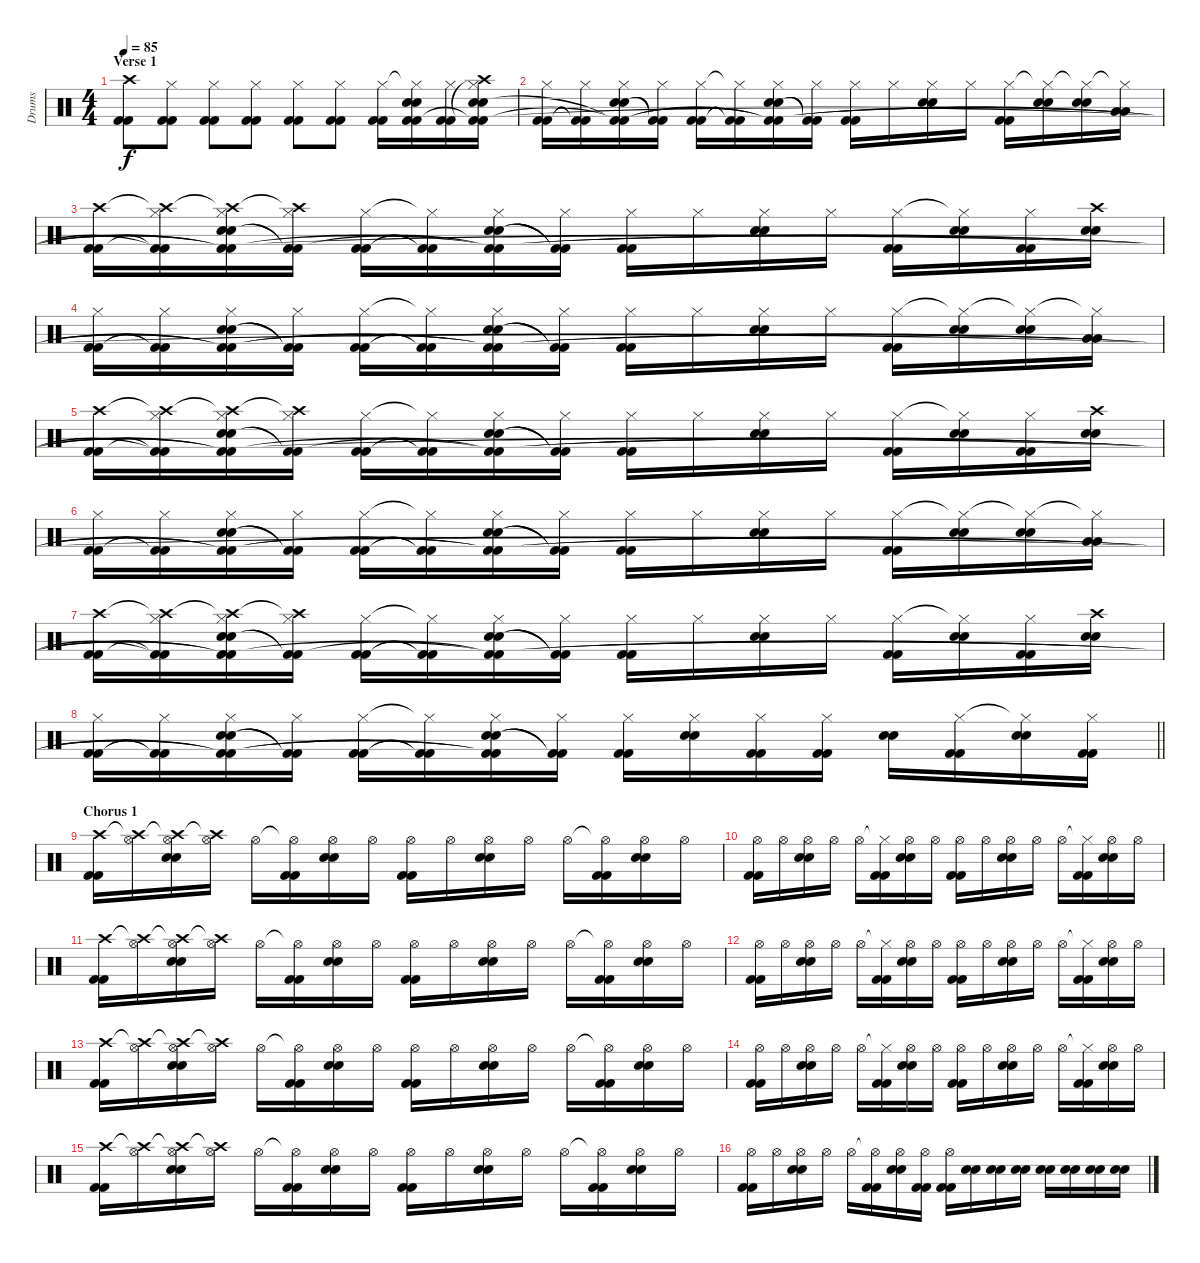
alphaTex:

\track ("Drums" "Drums") {instrument percussion}
\staff {score}
\articulation defaults
\ts (4 4)
\section ("" "Verse 1")
\tempo 85
\clef neutral
\ks c
("Crash high (hit)" "Kick (hit) 2" "Kick (hit) 2").8{dy f} ("Hi-Hat (closed)" "Kick (hit) 2" "Kick (hit) 2").8 ("Hi-Hat (closed)" "Kick (hit) 2" "Kick (hit) 2").8 ("Hi-Hat (closed)" "Kick (hit) 2" "Kick (hit) 2").8 ("Hi-Hat (closed)" "Kick (hit) 2" "Kick (hit) 2").8 ("Hi-Hat (closed)" "Kick (hit) 2" "Kick (hit) 2").8 ("Hi-Hat (closed)" "Kick (hit) 2" "Kick (hit) 2").16 ("Hi-Hat (closed)"{t} "Snare (hit) 2" "Snare (hit) 2" "Kick (hit) 2"{t} "Kick (hit) 2").16 ("Hi-Hat (closed)" "Kick (hit) 2" "Kick (hit) 2").16 ("Crash high (hit)" "Hi-Hat (closed)"{t} "Snare (hit) 2" "Snare (hit) 2" "Kick (hit) 2"{t} "Kick (hit) 2").16 |
("Hi-Hat (closed)" "Kick (hit) 2" "Kick (hit) 2").16 ("Hi-Hat (closed)" "Kick (hit) 2"{t} "Kick (hit) 2"{t}).16 ("Hi-Hat (closed)" "Snare (hit) 2" "Snare (hit) 2" "Kick (hit) 2"{t} "Kick (hit) 2"{t}).16 ("Hi-Hat (closed)" "Kick (hit) 2"{t} "Kick (hit) 2"{t}).16 ("Hi-Hat (closed)" "Kick (hit) 2" "Kick (hit) 2").16 ("Hi-Hat (closed)"{t} "Kick (hit) 2"{t} "Kick (hit) 2"{t}).16 ("Hi-Hat (closed)" "Snare (hit) 2" "Snare (hit) 2" "Kick (hit) 2"{t} "Kick (hit) 2"{t}).16 ("Hi-Hat (closed)" "Kick (hit) 2"{t} "Kick (hit) 2"{t}).16 ("Hi-Hat (closed)" "Kick (hit) 2" "Kick (hit) 2").16 "Hi-Hat (closed)".16 ("Hi-Hat (closed)" "Snare (hit) 2" "Snare (hit) 2").16 "Hi-Hat (closed)".16 ("Hi-Hat (closed)" "Kick (hit) 2" "Kick (hit) 2").16 ("Hi-Hat (closed)"{t} "Snare (hit) 2" "Snare (hit) 2").16 ("Hi-Hat (closed)"{t} "Snare (hit) 2" "Snare (hit) 2").16 ("Hi-Hat (closed)"{t} "Low Tom (hit)" "Low Tom (hit)").16 |
("Crash high (hit)" "Kick (hit) 2" "Kick (hit) 2").16 ("Crash high (hit)"{t} "Hi-Hat (closed)" "Kick (hit) 2"{t} "Kick (hit) 2"{t}).16 ("Crash high (hit)"{t} "Hi-Hat (closed)" "Snare (hit) 2" "Snare (hit) 2" "Kick (hit) 2"{t} "Kick (hit) 2"{t}).16 ("Crash high (hit)"{t} "Hi-Hat (closed)" "Kick (hit) 2"{t} "Kick (hit) 2"{t}).16 ("Hi-Hat (closed)" "Kick (hit) 2" "Kick (hit) 2").16 ("Hi-Hat (closed)"{t} "Kick (hit) 2"{t} "Kick (hit) 2"{t}).16 ("Hi-Hat (closed)" "Snare (hit) 2" "Snare (hit) 2" "Kick (hit) 2"{t} "Kick (hit) 2"{t}).16 ("Hi-Hat (closed)" "Kick (hit) 2"{t} "Kick (hit) 2"{t}).16 ("Hi-Hat (closed)" "Kick (hit) 2" "Kick (hit) 2").16 "Hi-Hat (closed)".16 ("Hi-Hat (closed)" "Snare (hit) 2" "Snare (hit) 2").16 "Hi-Hat (closed)".16 ("Hi-Hat (closed)" "Kick (hit) 2" "Kick (hit) 2").16 ("Hi-Hat (closed)"{t} "Snare (hit) 2" "Snare (hit) 2").16 ("Hi-Hat (closed)" "Kick (hit) 2" "Kick (hit) 2").16 ("Crash high (hit)" "Snare (hit) 2" "Snare (hit) 2").16 |
("Hi-Hat (closed)" "Kick (hit) 2" "Kick (hit) 2").16 ("Hi-Hat (closed)" "Kick (hit) 2"{t} "Kick (hit) 2"{t}).16 ("Hi-Hat (closed)" "Snare (hit) 2" "Snare (hit) 2" "Kick (hit) 2"{t} "Kick (hit) 2"{t}).16 ("Hi-Hat (closed)" "Kick (hit) 2"{t} "Kick (hit) 2"{t}).16 ("Hi-Hat (closed)" "Kick (hit) 2" "Kick (hit) 2").16 ("Hi-Hat (closed)"{t} "Kick (hit) 2"{t} "Kick (hit) 2"{t}).16 ("Hi-Hat (closed)" "Snare (hit) 2" "Snare (hit) 2" "Kick (hit) 2"{t} "Kick (hit) 2"{t}).16 ("Hi-Hat (closed)" "Kick (hit) 2"{t} "Kick (hit) 2"{t}).16 ("Hi-Hat (closed)" "Kick (hit) 2" "Kick (hit) 2").16 "Hi-Hat (closed)".16 ("Hi-Hat (closed)" "Snare (hit) 2" "Snare (hit) 2").16 "Hi-Hat (closed)".16 ("Hi-Hat (closed)" "Kick (hit) 2" "Kick (hit) 2").16 ("Hi-Hat (closed)"{t} "Snare (hit) 2" "Snare (hit) 2").16 ("Hi-Hat (closed)"{t} "Snare (hit) 2" "Snare (hit) 2").16 ("Hi-Hat (closed)"{t} "Low Tom (hit)" "Low Tom (hit)").16 |
("Crash high (hit)" "Kick (hit) 2" "Kick (hit) 2").16 ("Crash high (hit)"{t} "Hi-Hat (closed)" "Kick (hit) 2"{t} "Kick (hit) 2"{t}).16 ("Crash high (hit)"{t} "Hi-Hat (closed)" "Snare (hit) 2" "Snare (hit) 2" "Kick (hit) 2"{t} "Kick (hit) 2"{t}).16 ("Crash high (hit)"{t} "Hi-Hat (closed)" "Kick (hit) 2"{t} "Kick (hit) 2"{t}).16 ("Hi-Hat (closed)" "Kick (hit) 2" "Kick (hit) 2").16 ("Hi-Hat (closed)"{t} "Kick (hit) 2"{t} "Kick (hit) 2"{t}).16 ("Hi-Hat (closed)" "Snare (hit) 2" "Snare (hit) 2" "Kick (hit) 2"{t} "Kick (hit) 2"{t}).16 ("Hi-Hat (closed)" "Kick (hit) 2"{t} "Kick (hit) 2"{t}).16 ("Hi-Hat (closed)" "Kick (hit) 2" "Kick (hit) 2").16 "Hi-Hat (closed)".16 ("Hi-Hat (closed)" "Snare (hit) 2" "Snare (hit) 2").16 "Hi-Hat (closed)".16 ("Hi-Hat (closed)" "Kick (hit) 2" "Kick (hit) 2").16 ("Hi-Hat (closed)"{t} "Snare (hit) 2" "Snare (hit) 2").16 ("Hi-Hat (closed)" "Kick (hit) 2" "Kick (hit) 2").16 ("Crash high (hit)" "Snare (hit) 2" "Snare (hit) 2").16 |
("Hi-Hat (closed)" "Kick (hit) 2" "Kick (hit) 2").16 ("Hi-Hat (closed)" "Kick (hit) 2"{t} "Kick (hit) 2"{t}).16 ("Hi-Hat (closed)" "Snare (hit) 2" "Snare (hit) 2" "Kick (hit) 2"{t} "Kick (hit) 2"{t}).16 ("Hi-Hat (closed)" "Kick (hit) 2"{t} "Kick (hit) 2"{t}).16 ("Hi-Hat (closed)" "Kick (hit) 2" "Kick (hit) 2").16 ("Hi-Hat (closed)"{t} "Kick (hit) 2"{t} "Kick (hit) 2"{t}).16 ("Hi-Hat (closed)" "Snare (hit) 2" "Snare (hit) 2" "Kick (hit) 2"{t} "Kick (hit) 2"{t}).16 ("Hi-Hat (closed)" "Kick (hit) 2"{t} "Kick (hit) 2"{t}).16 ("Hi-Hat (closed)" "Kick (hit) 2" "Kick (hit) 2").16 "Hi-Hat (closed)".16 ("Hi-Hat (closed)" "Snare (hit) 2" "Snare (hit) 2").16 "Hi-Hat (closed)".16 ("Hi-Hat (closed)" "Kick (hit) 2" "Kick (hit) 2").16 ("Hi-Hat (closed)"{t} "Snare (hit) 2" "Snare (hit) 2").16 ("Hi-Hat (closed)"{t} "Snare (hit) 2" "Snare (hit) 2").16 ("Hi-Hat (closed)"{t} "Low Tom (hit)" "Low Tom (hit)").16 |
("Crash high (hit)" "Kick (hit) 2" "Kick (hit) 2").16 ("Crash high (hit)"{t} "Hi-Hat (closed)" "Kick (hit) 2"{t} "Kick (hit) 2"{t}).16 ("Crash high (hit)"{t} "Hi-Hat (closed)" "Snare (hit) 2" "Snare (hit) 2" "Kick (hit) 2"{t} "Kick (hit) 2"{t}).16 ("Crash high (hit)"{t} "Hi-Hat (closed)" "Kick (hit) 2"{t} "Kick (hit) 2"{t}).16 ("Hi-Hat (closed)" "Kick (hit) 2" "Kick (hit) 2").16 ("Hi-Hat (closed)"{t} "Kick (hit) 2"{t} "Kick (hit) 2"{t}).16 ("Hi-Hat (closed)" "Snare (hit) 2" "Snare (hit) 2" "Kick (hit) 2"{t} "Kick (hit) 2"{t}).16 ("Hi-Hat (closed)" "Kick (hit) 2"{t} "Kick (hit) 2"{t}).16 ("Hi-Hat (closed)" "Kick (hit) 2" "Kick (hit) 2").16 "Hi-Hat (closed)".16 ("Hi-Hat (closed)" "Snare (hit) 2" "Snare (hit) 2").16 "Hi-Hat (closed)".16 ("Hi-Hat (closed)" "Kick (hit) 2" "Kick (hit) 2").16 ("Hi-Hat (closed)"{t} "Snare (hit) 2" "Snare (hit) 2").16 ("Hi-Hat (closed)" "Kick (hit) 2" "Kick (hit) 2").16 ("Crash high (hit)" "Snare (hit) 2" "Snare (hit) 2").16 |
\barLineRight lightlight
("Hi-Hat (closed)" "Kick (hit) 2" "Kick (hit) 2").16 ("Hi-Hat (closed)" "Kick (hit) 2"{t} "Kick (hit) 2"{t}).16 ("Hi-Hat (closed)" "Snare (hit) 2" "Snare (hit) 2" "Kick (hit) 2"{t} "Kick (hit) 2"{t}).16 ("Hi-Hat (closed)" "Kick (hit) 2"{t} "Kick (hit) 2"{t}).16 ("Hi-Hat (closed)" "Kick (hit) 2" "Kick (hit) 2").16 ("Hi-Hat (closed)"{t} "Kick (hit) 2"{t} "Kick (hit) 2"{t}).16 ("Hi-Hat (closed)" "Snare (hit) 2" "Snare (hit) 2" "Kick (hit) 2"{t} "Kick (hit) 2"{t}).16 ("Hi-Hat (closed)" "Kick (hit) 2"{t} "Kick (hit) 2"{t}).16 ("Hi-Hat (closed)" "Kick (hit) 2" "Kick (hit) 2").16 ("Hi-Hat (closed)" "Snare (hit) 2" "Snare (hit) 2").16 ("Hi-Hat (closed)" "Kick (hit) 2" "Kick (hit) 2").16 ("Hi-Hat (closed)" "Kick (hit) 2" "Kick (hit) 2").16 ("Snare (hit) 2" "Snare (hit) 2").16 ("Hi-Hat (closed)" "Kick (hit) 2" "Kick (hit) 2").16 ("Hi-Hat (closed)"{t} "Snare (hit) 2" "Snare (hit) 2").16 ("Hi-Hat (closed)" "Kick (hit) 2" "Kick (hit) 2").16 |
\section ("" "Chorus 1")
("Crash high (hit)" "Kick (hit) 2" "Kick (hit) 2").16 ("Crash high (hit)"{t} "Hi-Hat (open)").16 ("Crash high (hit)"{t} "Hi-Hat (open)" "Snare (hit) 2" "Snare (hit) 2").16 ("Crash high (hit)"{t} "Hi-Hat (open)").16 "Hi-Hat (open)".16 ("Hi-Hat (open)"{t} "Kick (hit) 2" "Kick (hit) 2").16 ("Hi-Hat (open)" "Snare (hit) 2" "Snare (hit) 2").16 "Hi-Hat (open)".16 ("Hi-Hat (open)" "Kick (hit) 2" "Kick (hit) 2").16 "Hi-Hat (open)".16 ("Hi-Hat (open)" "Snare (hit) 2" "Snare (hit) 2").16 "Hi-Hat (open)".16 "Hi-Hat (open)".16 ("Hi-Hat (open)"{t} "Kick (hit) 2" "Kick (hit) 2").16 ("Hi-Hat (open)" "Snare (hit) 2" "Snare (hit) 2").16 "Hi-Hat (open)".16 |
("Hi-Hat (open)" "Kick (hit) 2" "Kick (hit) 2").16 "Hi-Hat (open)".16 ("Hi-Hat (open)" "Snare (hit) 2" "Snare (hit) 2").16 "Hi-Hat (open)".16 "Hi-Hat (open)".16 ("Hi-Hat (closed)"{t} "Kick (hit) 2" "Kick (hit) 2").16 ("Hi-Hat (open)" "Snare (hit) 2" "Snare (hit) 2").16 "Hi-Hat (open)".16 ("Hi-Hat (open)" "Kick (hit) 2" "Kick (hit) 2").16 "Hi-Hat (open)".16 ("Hi-Hat (open)" "Snare (hit) 2" "Snare (hit) 2").16 "Hi-Hat (open)".16 "Hi-Hat (open)".16 ("Hi-Hat (closed)"{t} "Kick (hit) 2" "Kick (hit) 2").16 ("Hi-Hat (open)" "Snare (hit) 2" "Snare (hit) 2").16 "Hi-Hat (open)".16 |
("Crash high (hit)" "Kick (hit) 2" "Kick (hit) 2").16 ("Crash high (hit)"{t} "Hi-Hat (open)").16 ("Crash high (hit)"{t} "Hi-Hat (open)" "Snare (hit) 2" "Snare (hit) 2").16 ("Crash high (hit)"{t} "Hi-Hat (open)").16 "Hi-Hat (open)".16 ("Hi-Hat (open)"{t} "Kick (hit) 2" "Kick (hit) 2").16 ("Hi-Hat (open)" "Snare (hit) 2" "Snare (hit) 2").16 "Hi-Hat (open)".16 ("Hi-Hat (open)" "Kick (hit) 2" "Kick (hit) 2").16 "Hi-Hat (open)".16 ("Hi-Hat (open)" "Snare (hit) 2" "Snare (hit) 2").16 "Hi-Hat (open)".16 "Hi-Hat (open)".16 ("Hi-Hat (open)"{t} "Kick (hit) 2" "Kick (hit) 2").16 ("Hi-Hat (open)" "Snare (hit) 2" "Snare (hit) 2").16 "Hi-Hat (open)".16 |
("Hi-Hat (open)" "Kick (hit) 2" "Kick (hit) 2").16 "Hi-Hat (open)".16 ("Hi-Hat (open)" "Snare (hit) 2" "Snare (hit) 2").16 "Hi-Hat (open)".16 "Hi-Hat (open)".16 ("Hi-Hat (closed)"{t} "Kick (hit) 2" "Kick (hit) 2").16 ("Hi-Hat (open)" "Snare (hit) 2" "Snare (hit) 2").16 "Hi-Hat (open)".16 ("Hi-Hat (open)" "Kick (hit) 2" "Kick (hit) 2").16 "Hi-Hat (open)".16 ("Hi-Hat (open)" "Snare (hit) 2" "Snare (hit) 2").16 "Hi-Hat (open)".16 "Hi-Hat (open)".16 ("Hi-Hat (closed)"{t} "Kick (hit) 2" "Kick (hit) 2").16 ("Hi-Hat (open)" "Snare (hit) 2" "Snare (hit) 2").16 "Hi-Hat (open)".16 |
("Crash high (hit)" "Kick (hit) 2" "Kick (hit) 2").16 ("Crash high (hit)"{t} "Hi-Hat (open)").16 ("Crash high (hit)"{t} "Hi-Hat (open)" "Snare (hit) 2" "Snare (hit) 2").16 ("Crash high (hit)"{t} "Hi-Hat (open)").16 "Hi-Hat (open)".16 ("Hi-Hat (open)"{t} "Kick (hit) 2" "Kick (hit) 2").16 ("Hi-Hat (open)" "Snare (hit) 2" "Snare (hit) 2").16 "Hi-Hat (open)".16 ("Hi-Hat (open)" "Kick (hit) 2" "Kick (hit) 2").16 "Hi-Hat (open)".16 ("Hi-Hat (open)" "Snare (hit) 2" "Snare (hit) 2").16 "Hi-Hat (open)".16 "Hi-Hat (open)".16 ("Hi-Hat (open)"{t} "Kick (hit) 2" "Kick (hit) 2").16 ("Hi-Hat (open)" "Snare (hit) 2" "Snare (hit) 2").16 "Hi-Hat (open)".16 |
("Hi-Hat (open)" "Kick (hit) 2" "Kick (hit) 2").16 "Hi-Hat (open)".16 ("Hi-Hat (open)" "Snare (hit) 2" "Snare (hit) 2").16 "Hi-Hat (open)".16 "Hi-Hat (open)".16 ("Hi-Hat (closed)"{t} "Kick (hit) 2" "Kick (hit) 2").16 ("Hi-Hat (open)" "Snare (hit) 2" "Snare (hit) 2").16 "Hi-Hat (open)".16 ("Hi-Hat (open)" "Kick (hit) 2" "Kick (hit) 2").16 "Hi-Hat (open)".16 ("Hi-Hat (open)" "Snare (hit) 2" "Snare (hit) 2").16 "Hi-Hat (open)".16 "Hi-Hat (open)".16 ("Hi-Hat (closed)"{t} "Kick (hit) 2" "Kick (hit) 2").16 ("Hi-Hat (open)" "Snare (hit) 2" "Snare (hit) 2").16 "Hi-Hat (open)".16 |
("Crash high (hit)" "Kick (hit) 2" "Kick (hit) 2").16 ("Crash high (hit)"{t} "Hi-Hat (open)").16 ("Crash high (hit)"{t} "Hi-Hat (open)" "Snare (hit) 2" "Snare (hit) 2").16 ("Crash high (hit)"{t} "Hi-Hat (open)").16 "Hi-Hat (open)".16 ("Hi-Hat (open)"{t} "Kick (hit) 2" "Kick (hit) 2").16 ("Hi-Hat (open)" "Snare (hit) 2" "Snare (hit) 2").16 "Hi-Hat (open)".16 ("Hi-Hat (open)" "Kick (hit) 2" "Kick (hit) 2").16 "Hi-Hat (open)".16 ("Hi-Hat (open)" "Snare (hit) 2" "Snare (hit) 2").16 "Hi-Hat (open)".16 "Hi-Hat (open)".16 ("Hi-Hat (open)"{t} "Kick (hit) 2" "Kick (hit) 2").16 ("Hi-Hat (open)" "Snare (hit) 2" "Snare (hit) 2").16 "Hi-Hat (open)".16 |
("Hi-Hat (open)" "Kick (hit) 2" "Kick (hit) 2").16 "Hi-Hat (open)".16 ("Hi-Hat (open)" "Snare (hit) 2" "Snare (hit) 2").16 "Hi-Hat (open)".16 "Hi-Hat (open)".16 ("Hi-Hat (open)"{t} "Kick (hit) 2" "Kick (hit) 2").16 ("Hi-Hat (open)" "Snare (hit) 2" "Snare (hit) 2").16 ("Hi-Hat (open)" "Kick (hit) 2" "Kick (hit) 2").16 ("Hi-Hat (open)" "Kick (hit) 2" "Kick (hit) 2").16 ("Snare (hit) 2" "Snare (hit) 2").16 ("Snare (hit) 2" "Snare (hit) 2").16 ("Snare (hit) 2" "Snare (hit) 2").16 ("Snare (hit) 2" "Snare (hit) 2").16 ("Snare (hit) 2" "Snare (hit) 2").16 ("Snare (hit) 2" "Snare (hit) 2").16 ("Snare (hit) 2" "Snare (hit) 2").16
